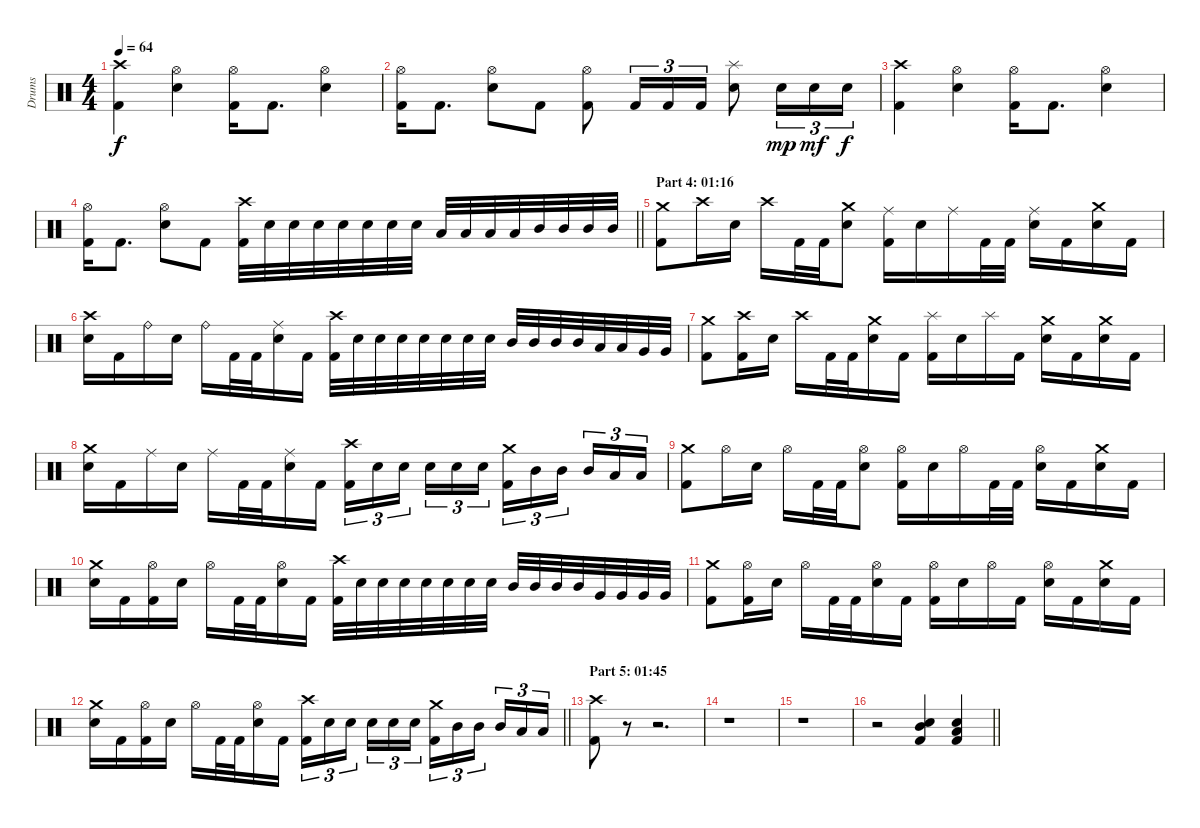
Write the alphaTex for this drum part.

\track ("Drums" "Drums") {instrument percussion}
\staff {score}
\articulation defaults
\ts (4 4)
\tempo 64
\clef neutral
\ks c
("Crash high (hit)" "Kick (hit) 2").4{dy f} ("Hi-Hat (open)" "Electric Snare (hit)").4 ("Hi-Hat (open)" "Kick (hit) 2").16 "Kick (hit) 2".8{d} ("Hi-Hat (open)" "Electric Snare (hit)").4 |
("Hi-Hat (open)" "Kick (hit) 2").16 "Kick (hit) 2".8{d} ("Hi-Hat (open)" "Electric Snare (hit)").8 "Kick (hit) 2".8 ("Hi-Hat (open)" "Kick (hit) 2").8 "Kick (hit) 2".16{tu (3 2)} "Kick (hit) 2".16{tu (3 2)} "Kick (hit) 2".16{tu (3 2)} ("Splash (hit)" "Electric Snare (hit)").8 "Electric Snare (hit)".16{tu (3 2) dy mp} "Electric Snare (hit)".16{tu (3 2) dy mf} "Electric Snare (hit)".16{tu (3 2) dy f} |
("Crash high (hit)" "Kick (hit) 2").4 ("Hi-Hat (open)" "Electric Snare (hit)").4 ("Hi-Hat (open)" "Kick (hit) 2").16 "Kick (hit) 2".8{d} ("Hi-Hat (open)" "Electric Snare (hit)").4 |
\barLineRight lightlight
("Hi-Hat (open)" "Kick (hit) 2").16 "Kick (hit) 2".8{d} ("Hi-Hat (open)" "Electric Snare (hit)").8 "Kick (hit) 2".8 ("Crash high (hit)" "Kick (hit) 2").32 "Electric Snare (hit)".32 "Electric Snare (hit)".32 "Electric Snare (hit)".32 "Electric Snare (hit)".32 "Electric Snare (hit)".32 "Electric Snare (hit)".32 "Electric Snare (hit)".32 "Low Tom (hit)".32 "Low Tom (hit)".32 "Low Tom (hit)".32 "Low Tom (hit)".32 "Mid Tom (hit)".32 "Mid Tom (hit)".32 "Mid Tom (hit)".32 "Mid Tom (hit)".32 |
\section ("" "Part 4: 01:16")
("Crash medium (hit)" "Kick (hit) 2").8 "Crash high (hit)".16 "Electric Snare (hit)".16 "Crash high (hit)".16 "Kick (hit) 2".32 "Kick (hit) 2".32 ("Crash medium (hit)" "Electric Snare (hit)").8 ("Ride (middle)" "Kick (hit) 2").16 "Electric Snare (hit)".16 "Ride (middle)".16 "Kick (hit) 2".32 "Kick (hit) 2".32 ("Ride (middle)" "Electric Snare (hit)").16 "Kick (hit) 2".16 ("Crash medium (hit)" "Electric Snare (hit)").16 "Kick (hit) 2".16 |
("Crash high (hit)" "Electric Snare (hit)").16 "Kick (hit) 2".16 "Ride (bell)".16 "Electric Snare (hit)".16 "Ride (bell)".16 "Kick (hit) 2".32 "Kick (hit) 2".32 ("Ride (middle)" "Electric Snare (hit)").16 "Kick (hit) 2".16 ("Crash high (hit)" "Kick (hit) 2").32 "Electric Snare (hit)".32 "Electric Snare (hit)".32 "Electric Snare (hit)".32 "Electric Snare (hit)".32 "Electric Snare (hit)".32 "Electric Snare (hit)".32 "Electric Snare (hit)".32 "Mid Tom (hit)".32 "Mid Tom (hit)".32 "Mid Tom (hit)".32 "Mid Tom (hit)".32 "Low Tom (hit)".32 "Low Tom (hit)".32 "Very Low Tom (hit)".32 "Very Low Tom (hit)".32 |
("Crash medium (hit)" "Kick (hit) 2").8 ("Crash high (hit)" "Kick (hit) 2").16 "Electric Snare (hit)".16 "Crash high (hit)".16 "Kick (hit) 2".32 "Kick (hit) 2".32 ("Crash medium (hit)" "Electric Snare (hit)").16 "Kick (hit) 2".16 ("Splash (hit)" "Kick (hit) 2").16 "Electric Snare (hit)".16 "Splash (hit)".16 "Kick (hit) 2".16 ("Crash medium (hit)" "Electric Snare (hit)").16 "Kick (hit) 2".16 ("Crash medium (hit)" "Electric Snare (hit)").16 "Kick (hit) 2".16 |
("Crash medium (hit)" "Electric Snare (hit)").16 "Kick (hit) 2".16 "Ride (middle)".16 "Electric Snare (hit)".16 "Ride (middle)".16 "Kick (hit) 2".32 "Kick (hit) 2".32 ("Ride (middle)" "Electric Snare (hit)").16 "Kick (hit) 2".16 ("Crash high (hit)" "Kick (hit) 2").16{tu (3 2)} "Electric Snare (hit)".16{tu (3 2)} "Electric Snare (hit)".16{tu (3 2) beam splitsecondary} "Electric Snare (hit)".16{tu (3 2)} "Electric Snare (hit)".16{tu (3 2)} "Electric Snare (hit)".16{tu (3 2)} ("Crash medium (hit)" "Kick (hit) 2").16{tu (3 2)} "Mid Tom (hit)".16{tu (3 2)} "Mid Tom (hit)".16{tu (3 2) beam splitsecondary} "Mid Tom (hit)".16{tu (3 2)} "Low Tom (hit)".16{tu (3 2)} "Low Tom (hit)".16{tu (3 2)} |
("Crash medium (hit)" "Kick (hit) 2").8 "Hi-Hat (open)".16 "Electric Snare (hit)".16 "Hi-Hat (open)".16 "Kick (hit) 2".32 "Kick (hit) 2".32 ("Hi-Hat (open)" "Electric Snare (hit)").8 ("Hi-Hat (open)" "Kick (hit) 2").16 "Electric Snare (hit)".16 "Hi-Hat (open)".16 "Kick (hit) 2".32 "Kick (hit) 2".32 ("Hi-Hat (open)" "Electric Snare (hit)").16 "Kick (hit) 2".16 ("Crash medium (hit)" "Electric Snare (hit)").16 "Kick (hit) 2".16 |
("Crash medium (hit)" "Electric Snare (hit)").16 "Kick (hit) 2".16 ("Hi-Hat (open)" "Kick (hit) 2").16 "Electric Snare (hit)".16 "Hi-Hat (open)".16 "Kick (hit) 2".32 "Kick (hit) 2".32 ("Hi-Hat (open)" "Electric Snare (hit)").16 "Kick (hit) 2".16 ("Crash high (hit)" "Kick (hit) 2").32 "Electric Snare (hit)".32 "Electric Snare (hit)".32 "Electric Snare (hit)".32 "Electric Snare (hit)".32 "Electric Snare (hit)".32 "Electric Snare (hit)".32 "Electric Snare (hit)".32 "Mid Tom (hit)".32 "Mid Tom (hit)".32 "Mid Tom (hit)".32 "Mid Tom (hit)".32 "Very Low Tom (hit)".32 "Very Low Tom (hit)".32 "Very Low Tom (hit)".32 "Very Low Tom (hit)".32 |
("Crash medium (hit)" "Kick (hit) 2").8 ("Hi-Hat (open)" "Kick (hit) 2").16 "Electric Snare (hit)".16 "Hi-Hat (open)".16 "Kick (hit) 2".32 "Kick (hit) 2".32 ("Hi-Hat (open)" "Electric Snare (hit)").16 "Kick (hit) 2".16 ("Hi-Hat (open)" "Kick (hit) 2").16 "Electric Snare (hit)".16 "Hi-Hat (open)".16 "Kick (hit) 2".16 ("Hi-Hat (open)" "Electric Snare (hit)").16 "Kick (hit) 2".16 ("Crash medium (hit)" "Electric Snare (hit)").16 "Kick (hit) 2".16 |
\barLineRight lightlight
("Crash medium (hit)" "Electric Snare (hit)").16 "Kick (hit) 2".16 ("Hi-Hat (open)" "Kick (hit) 2").16 "Electric Snare (hit)".16 "Hi-Hat (open)".16 "Kick (hit) 2".32 "Kick (hit) 2".32 ("Hi-Hat (open)" "Electric Snare (hit)").16 "Kick (hit) 2".16 ("Crash high (hit)" "Kick (hit) 2").16{tu (3 2)} "Electric Snare (hit)".16{tu (3 2)} "Electric Snare (hit)".16{tu (3 2) beam splitsecondary} "Electric Snare (hit)".16{tu (3 2)} "Electric Snare (hit)".16{tu (3 2)} "Electric Snare (hit)".16{tu (3 2)} ("Crash medium (hit)" "Kick (hit) 2").16{tu (3 2)} "Mid Tom (hit)".16{tu (3 2)} "Mid Tom (hit)".16{tu (3 2) beam splitsecondary} "Mid Tom (hit)".16{tu (3 2)} "Low Tom (hit)".16{tu (3 2)} "Low Tom (hit)".16{tu (3 2)} |
\section ("" "Part 5: 01:45")
("Crash high (hit)" "Kick (hit) 2").8 r.8 r.2{d} |
r.1 |
r.1 |
\barLineRight lightlight
r.2 ("Mid Tom (hit)" "Electric Snare (hit)" "Kick (hit) 2").4 ("Low Tom (hit)" "Electric Snare (hit)" "Kick (hit) 2").4
